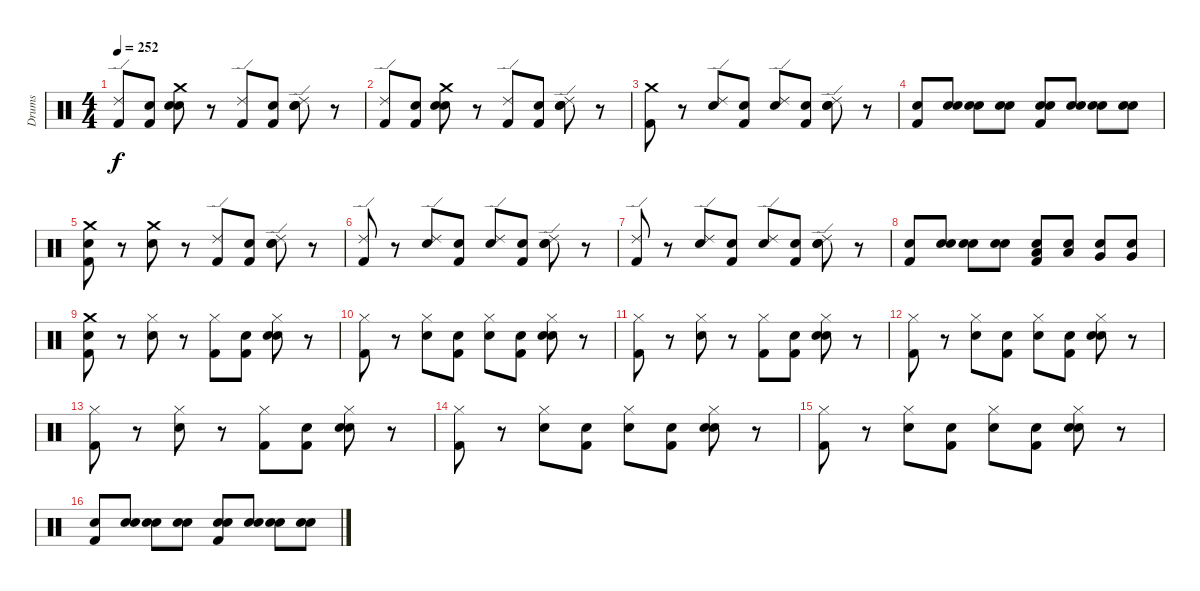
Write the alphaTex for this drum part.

\track ("Drums" "Drums") {instrument percussion}
\staff {score}
\articulation defaults
\ts (4 4)
\tempo 252
\clef neutral
\ks c
("Ride (edge) 2" "Kick (hit) 2").8{dy f} ("Snare (hit)" "Kick (hit) 2").8 ("Snare (hit)" "Crash medium (hit)" "Electric Snare (hit)").8 r.8 ("Ride (edge) 2" "Kick (hit) 2").8 ("Snare (hit)" "Kick (hit) 2").8 ("Snare (hit)" "Ride (edge) 2" "Electric Snare (hit)").8 r.8 |
("Ride (edge) 2" "Kick (hit) 2").8 ("Snare (hit)" "Kick (hit) 2").8 ("Snare (hit)" "Crash medium (hit)" "Electric Snare (hit)").8 r.8 ("Ride (edge) 2" "Kick (hit) 2").8 ("Snare (hit)" "Kick (hit) 2").8 ("Snare (hit)" "Ride (edge) 2" "Electric Snare (hit)").8 r.8 |
("Crash medium (hit)" "Kick (hit) 2").8 r.8 ("Ride (edge) 2" "Electric Snare (hit)").8 ("Snare (hit)" "Kick (hit) 2").8 ("Snare (hit)" "Ride (edge) 2").8 ("Snare (hit)" "Kick (hit) 2").8 ("Snare (hit)" "Ride (edge) 2" "Electric Snare (hit)").8 r.8 |
("Electric Snare (hit)" "Kick (hit) 2").8 ("Snare (hit)" "Electric Snare (hit)").8 ("Snare (hit)" "Electric Snare (hit)").8 ("Snare (hit)" "Electric Snare (hit)").8 ("Snare (hit)" "Electric Snare (hit)" "Kick (hit) 2").8 ("Snare (hit)" "Electric Snare (hit)").8 ("Snare (hit)" "Electric Snare (hit)").8 ("Snare (hit)" "Electric Snare (hit)").8 |
("Snare (hit)" "Crash medium (hit)" "Kick (hit) 2").8 r.8 ("Crash medium (hit)" "Electric Snare (hit)").8 r.8 ("Ride (edge) 2" "Kick (hit) 2").8 ("Snare (hit)" "Kick (hit) 2").8 ("Snare (hit)" "Ride (edge) 2" "Electric Snare (hit)").8 r.8 |
("Ride (edge) 2" "Kick (hit) 2").8 r.8 ("Ride (edge) 2" "Electric Snare (hit)").8 ("Snare (hit)" "Kick (hit) 2").8 ("Snare (hit)" "Ride (edge) 2").8 ("Snare (hit)" "Kick (hit) 2").8 ("Snare (hit)" "Ride (edge) 2" "Electric Snare (hit)").8 r.8 |
("Ride (edge) 2" "Kick (hit) 2").8 r.8 ("Ride (edge) 2" "Electric Snare (hit)").8 ("Snare (hit)" "Kick (hit) 2").8 ("Snare (hit)" "Ride (edge) 2").8 ("Snare (hit)" "Kick (hit) 2").8 ("Snare (hit)" "Ride (edge) 2" "Electric Snare (hit)").8 r.8 |
("Electric Snare (hit)" "Kick (hit) 2").8 ("Snare (hit)" "Electric Snare (hit)").8 ("Snare (hit)" "Electric Snare (hit)").8 ("Snare (hit)" "Electric Snare (hit)").8 ("Snare (hit)" "Low Tom (hit)" "Kick (hit) 2").8 ("Snare (hit)" "Low Tom (hit)").8 ("Snare (hit)" "Very Low Tom (hit)").8 ("Snare (hit)" "Very Low Tom (hit)").8 |
("Snare (hit)" "Crash medium (hit)" "Kick (hit) 2").8 r.8 ("Hi-Hat (closed)" "Electric Snare (hit)").8 r.8 ("Hi-Hat (closed)" "Kick (hit) 2").8 ("Snare (hit)" "Kick (hit) 2").8 ("Snare (hit)" "Hi-Hat (closed)" "Electric Snare (hit)").8 r.8 |
("Hi-Hat (closed)" "Kick (hit) 2").8 r.8 ("Hi-Hat (closed)" "Electric Snare (hit)").8 ("Snare (hit)" "Kick (hit) 2").8 ("Snare (hit)" "Hi-Hat (closed)").8 ("Snare (hit)" "Kick (hit) 2").8 ("Snare (hit)" "Hi-Hat (closed)" "Electric Snare (hit)").8 r.8 |
("Hi-Hat (closed)" "Kick (hit) 2").8 r.8 ("Hi-Hat (closed)" "Electric Snare (hit)").8 r.8 ("Hi-Hat (closed)" "Kick (hit) 2").8 ("Snare (hit)" "Kick (hit) 2").8 ("Snare (hit)" "Hi-Hat (closed)" "Electric Snare (hit)").8 r.8 |
("Hi-Hat (closed)" "Kick (hit) 2").8 r.8 ("Hi-Hat (closed)" "Electric Snare (hit)").8 ("Snare (hit)" "Kick (hit) 2").8 ("Snare (hit)" "Hi-Hat (closed)").8 ("Snare (hit)" "Kick (hit) 2").8 ("Snare (hit)" "Hi-Hat (closed)" "Electric Snare (hit)").8 r.8 |
("Hi-Hat (closed)" "Kick (hit) 2").8 r.8 ("Hi-Hat (closed)" "Electric Snare (hit)").8 r.8 ("Hi-Hat (closed)" "Kick (hit) 2").8 ("Snare (hit)" "Kick (hit) 2").8 ("Snare (hit)" "Hi-Hat (closed)" "Electric Snare (hit)").8 r.8 |
("Hi-Hat (closed)" "Kick (hit) 2").8 r.8 ("Hi-Hat (closed)" "Electric Snare (hit)").8 ("Snare (hit)" "Kick (hit) 2").8 ("Snare (hit)" "Hi-Hat (closed)").8 ("Snare (hit)" "Kick (hit) 2").8 ("Snare (hit)" "Hi-Hat (closed)" "Electric Snare (hit)").8 r.8 |
("Hi-Hat (closed)" "Kick (hit) 2").8 r.8 ("Hi-Hat (closed)" "Electric Snare (hit)").8 ("Snare (hit)" "Kick (hit) 2").8 ("Snare (hit)" "Hi-Hat (closed)").8 ("Snare (hit)" "Kick (hit) 2").8 ("Snare (hit)" "Hi-Hat (closed)" "Electric Snare (hit)").8 r.8 |
("Electric Snare (hit)" "Kick (hit) 2").8 ("Snare (hit)" "Electric Snare (hit)").8 ("Snare (hit)" "Electric Snare (hit)").8 ("Snare (hit)" "Electric Snare (hit)").8 ("Snare (hit)" "Electric Snare (hit)" "Kick (hit) 2").8 ("Snare (hit)" "Electric Snare (hit)").8 ("Snare (hit)" "Electric Snare (hit)").8 ("Snare (hit)" "Electric Snare (hit)").8
